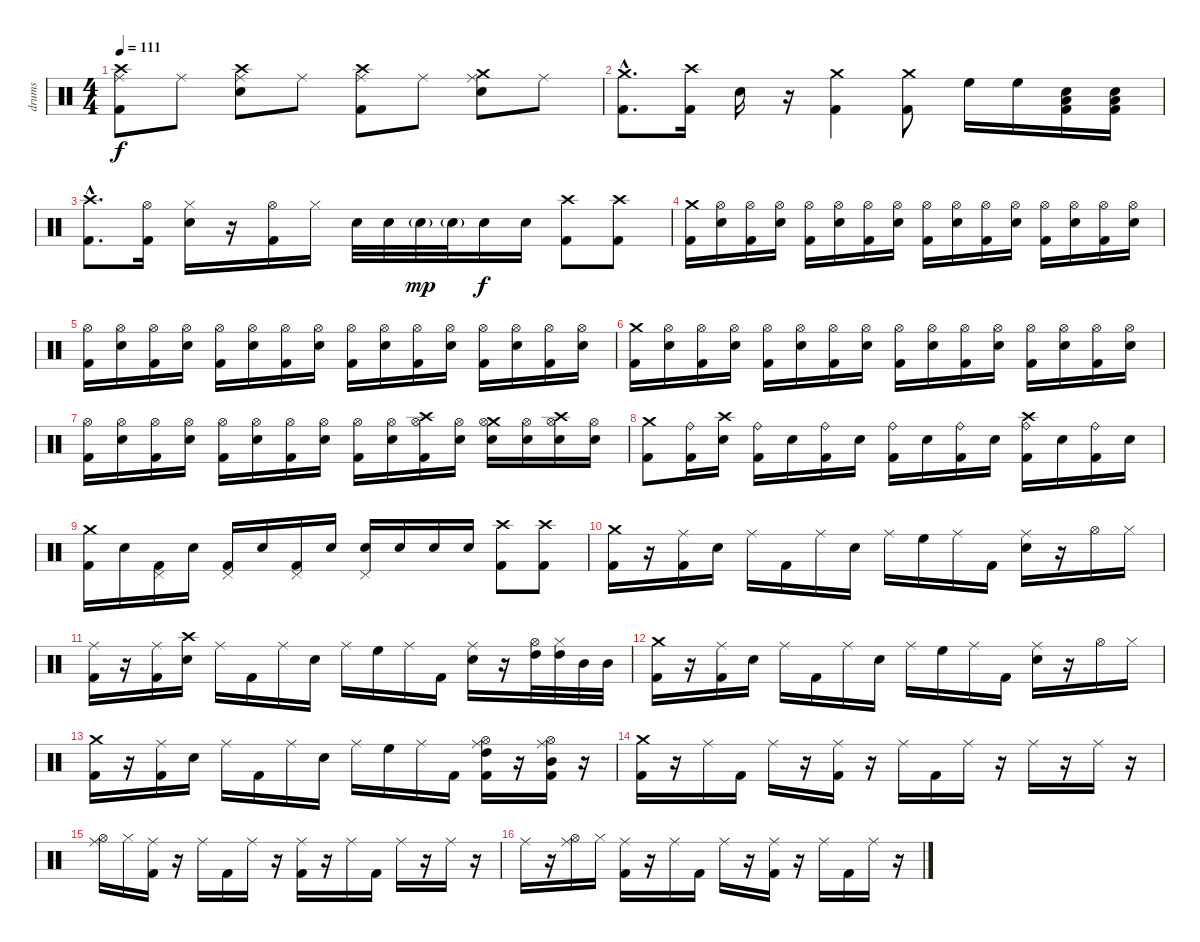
\track ("drums" "drums") {instrument percussion}
\staff {score}
\articulation defaults
\ts (4 4)
\tempo 111
\clef neutral
\ks c
("Crash high (hit)" "Ride (middle)" "Kick (hit) 2").8{dy f} "Ride (middle)".8 ("Crash high (hit)" "Ride (middle)" "Electric Snare (hit)").8 "Ride (middle)".8 ("Crash high (hit)" "Ride (middle)" "Kick (hit) 2").8 "Ride (middle)".8 ("Crash medium (hit)" "Ride (middle)" "Electric Snare (hit)").8 "Ride (middle)".8 |
("Crash medium (hit)"{hac} "Kick (hit) 2"{hac}).8{d} ("Crash high (hit)" "Kick (hit) 2").16 "Electric Snare (hit)".16 r.16 ("Crash medium (hit)" "Kick (hit) 2").4 ("Crash medium (hit)" "Kick (hit) 2").8 "High Floor Tom (hit)".16 "High Floor Tom (hit)".16 ("Low Tom (hit)" "Electric Snare (hit)" "Kick (hit) 2").16 ("Low Tom (hit)" "Electric Snare (hit)" "Kick (hit) 2").16 |
("Crash high (hit)"{hac} "Kick (hit) 2"{hac}).8{d} ("Hi-Hat (open)" "Kick (hit) 2").16 ("Hi-Hat (closed)" "Electric Snare (hit)").16 r.16 ("Hi-Hat (open)" "Kick (hit) 2").16 "Hi-Hat (closed)".16 "Electric Snare (hit)".32 "Electric Snare (hit)".32 "Electric Snare (hit)"{g}.32{dy mp} "Electric Snare (hit)"{g}.32 "Electric Snare (hit)".16{dy f} "Electric Snare (hit)".16 ("Crash high (hit)" "Kick (hit) 2").8 ("Crash high (hit)" "Kick (hit) 2").8 |
("Crash medium (hit)" "Kick (hit) 2").16 ("Hi-Hat (open)" "Electric Snare (hit)").16 ("Hi-Hat (open)" "Kick (hit) 2").16 ("Hi-Hat (open)" "Electric Snare (hit)").16 ("Hi-Hat (open)" "Kick (hit) 2").16 ("Hi-Hat (open)" "Electric Snare (hit)").16 ("Hi-Hat (open)" "Kick (hit) 2").16 ("Hi-Hat (open)" "Electric Snare (hit)").16 ("Hi-Hat (open)" "Kick (hit) 2").16 ("Hi-Hat (open)" "Electric Snare (hit)").16 ("Hi-Hat (open)" "Kick (hit) 2").16 ("Hi-Hat (open)" "Electric Snare (hit)").16 ("Hi-Hat (open)" "Kick (hit) 2").16 ("Hi-Hat (open)" "Electric Snare (hit)").16 ("Hi-Hat (open)" "Kick (hit) 2").16 ("Hi-Hat (open)" "Electric Snare (hit)").16 |
("Hi-Hat (open)" "Kick (hit) 2").16 ("Hi-Hat (open)" "Electric Snare (hit)").16 ("Hi-Hat (open)" "Kick (hit) 2").16 ("Hi-Hat (open)" "Electric Snare (hit)").16 ("Hi-Hat (open)" "Kick (hit) 2").16 ("Hi-Hat (open)" "Electric Snare (hit)").16 ("Hi-Hat (open)" "Kick (hit) 2").16 ("Hi-Hat (open)" "Electric Snare (hit)").16 ("Hi-Hat (open)" "Kick (hit) 2").16 ("Hi-Hat (open)" "Electric Snare (hit)").16 ("Hi-Hat (open)" "Kick (hit) 2").16 ("Hi-Hat (open)" "Electric Snare (hit)").16 ("Hi-Hat (open)" "Kick (hit) 2").16 ("Hi-Hat (open)" "Electric Snare (hit)").16 ("Hi-Hat (open)" "Kick (hit) 2").16 ("Hi-Hat (open)" "Electric Snare (hit)").16 |
("Crash medium (hit)" "Kick (hit) 2").16 ("Hi-Hat (open)" "Electric Snare (hit)").16 ("Hi-Hat (open)" "Kick (hit) 2").16 ("Hi-Hat (open)" "Electric Snare (hit)").16 ("Hi-Hat (open)" "Kick (hit) 2").16 ("Hi-Hat (open)" "Electric Snare (hit)").16 ("Hi-Hat (open)" "Kick (hit) 2").16 ("Hi-Hat (open)" "Electric Snare (hit)").16 ("Hi-Hat (open)" "Kick (hit) 2").16 ("Hi-Hat (open)" "Electric Snare (hit)").16 ("Hi-Hat (open)" "Kick (hit) 2").16 ("Hi-Hat (open)" "Electric Snare (hit)").16 ("Hi-Hat (open)" "Kick (hit) 2").16 ("Hi-Hat (open)" "Electric Snare (hit)").16 ("Hi-Hat (open)" "Kick (hit) 2").16 ("Hi-Hat (open)" "Electric Snare (hit)").16 |
("Hi-Hat (open)" "Kick (hit) 2").16 ("Hi-Hat (open)" "Electric Snare (hit)").16 ("Hi-Hat (open)" "Kick (hit) 2").16 ("Hi-Hat (open)" "Electric Snare (hit)").16 ("Hi-Hat (open)" "Kick (hit) 2").16 ("Hi-Hat (open)" "Electric Snare (hit)").16 ("Hi-Hat (open)" "Kick (hit) 2").16 ("Hi-Hat (open)" "Electric Snare (hit)").16 ("Hi-Hat (open)" "Kick (hit) 2").16 ("Hi-Hat (open)" "Electric Snare (hit)").16 ("Crash high (hit)" "Hi-Hat (open)" "Kick (hit) 2").16 ("Hi-Hat (open)" "Electric Snare (hit)").16 ("Crash medium (hit)" "Hi-Hat (open)" "Electric Snare (hit)").16 ("Hi-Hat (open)" "Electric Snare (hit)").16 ("Crash high (hit)" "Hi-Hat (open)" "Electric Snare (hit)").16 ("Hi-Hat (open)" "Electric Snare (hit)").16 |
("Crash medium (hit)" "Kick (hit) 2").8 ("Ride (bell)" "Kick (hit) 2").16 ("Crash high (hit)" "Electric Snare (hit)").16 ("Ride (bell)" "Kick (hit) 2").16 "Electric Snare (hit)".16 ("Ride (bell)" "Kick (hit) 2").16 "Electric Snare (hit)".16 ("Ride (bell)" "Kick (hit) 2").16 "Electric Snare (hit)".16 ("Ride (bell)" "Kick (hit) 2").16 "Electric Snare (hit)".16 ("Crash high (hit)" "Ride (bell)" "Kick (hit) 2").16 "Electric Snare (hit)".16 ("Ride (bell)" "Kick (hit) 2").16 "Electric Snare (hit)".16 |
("Crash medium (hit)" "Kick (hit) 2").16 "Electric Snare (hit)".16 ("Pedal Hi-Hat (hit)" "Kick (hit) 2").16 "Electric Snare (hit)".16 ("Pedal Hi-Hat (hit)" "Kick (hit) 2").16 "Electric Snare (hit)".16 ("Pedal Hi-Hat (hit)" "Kick (hit) 2").16 "Electric Snare (hit)".16 ("Pedal Hi-Hat (hit)" "Electric Snare (hit)").16 "Electric Snare (hit)".16 "Electric Snare (hit)".16 "Electric Snare (hit)".16 ("Crash high (hit)" "Kick (hit) 2").8 ("Crash high (hit)" "Kick (hit) 2").8 |
("Crash medium (hit)" "Kick (hit) 2").16 r.16 ("Ride (middle)" "Kick (hit) 2").16 "Electric Snare (hit)".16 "Ride (middle)".16 "Kick (hit) 2".16 "Ride (middle)".16 "Electric Snare (hit)".16 "Ride (middle)".16 "High Floor Tom (hit)".16 "Ride (middle)".16 "Kick (hit) 2".16 ("Ride (middle)" "Electric Snare (hit)").16 r.16 "Hi-Hat (open)".16 "Hi-Hat (closed)".16 |
("Ride (middle)" "Kick (hit) 2").16 r.16 ("Ride (middle)" "Kick (hit) 2").16 ("Crash high (hit)" "Electric Snare (hit)").16 "Ride (middle)".16 "Kick (hit) 2".16 "Ride (middle)".16 "Electric Snare (hit)".16 "Ride (middle)".16 "High Floor Tom (hit)".16 "Ride (middle)".16 "Kick (hit) 2".16 ("Ride (middle)" "Electric Snare (hit)").16 r.16 ("Hi-Hat (open)" "High Tom (hit)").32 ("Hi-Hat (closed)" "High Tom (hit)").32 "Mid Tom (hit)".32 "Mid Tom (hit)".32 |
("Crash medium (hit)" "Kick (hit) 2").16 r.16 ("Ride (middle)" "Kick (hit) 2").16 "Electric Snare (hit)".16 "Ride (middle)".16 "Kick (hit) 2".16 "Ride (middle)".16 "Electric Snare (hit)".16 "Ride (middle)".16 "High Floor Tom (hit)".16 "Ride (middle)".16 "Kick (hit) 2".16 ("Ride (middle)" "Electric Snare (hit)").16 r.16 "Hi-Hat (open)".16 "Hi-Hat (closed)".16 |
("Crash medium (hit)" "Kick (hit) 2").16 r.16 ("Ride (middle)" "Kick (hit) 2").16 "Electric Snare (hit)".16 "Ride (middle)".16 "Kick (hit) 2".16 "Ride (middle)".16 "Electric Snare (hit)".16 "Ride (middle)".16 "High Floor Tom (hit)".16 "Ride (middle)".16 "Kick (hit) 2".16 ("Hi-Hat (open)" "Ride (middle)" "High Tom (hit)" "Kick (hit) 2").16 r.16 ("Hi-Hat (open)" "Ride (middle)" "Mid Tom (hit)" "Kick (hit) 2").16 r.16 |
("Crash medium (hit)" "Kick (hit) 2").16 r.16 "Ride (middle)".16 "Kick (hit) 2".16 "Ride (middle)".16 r.16 ("Ride (middle)" "Kick (hit) 2").16 r.16 "Ride (middle)".16 "Kick (hit) 2".16 "Ride (middle)".16 r.16 "Ride (middle)".16 r.16 "Ride (middle)".16 r.16 |
("Hi-Hat (open)" "Ride (middle)").16 "Hi-Hat (closed)".16 ("Ride (middle)" "Kick (hit) 2").16 r.16 "Ride (middle)".16 "Kick (hit) 2".16 "Ride (middle)".16 r.16 ("Ride (middle)" "Kick (hit) 2").16 r.16 "Ride (middle)".16 "Kick (hit) 2".16 "Ride (middle)".16 r.16 "Ride (middle)".16 r.16 |
"Ride (middle)".16 r.16 ("Hi-Hat (open)" "Ride (middle)").16 "Hi-Hat (closed)".16 ("Ride (middle)" "Kick (hit) 2").16 r.16 "Ride (middle)".16 "Kick (hit) 2".16 "Ride (middle)".16 r.16 ("Ride (middle)" "Kick (hit) 2").16 r.16 "Ride (middle)".16 "Kick (hit) 2".16 "Ride (middle)".16 r.16
